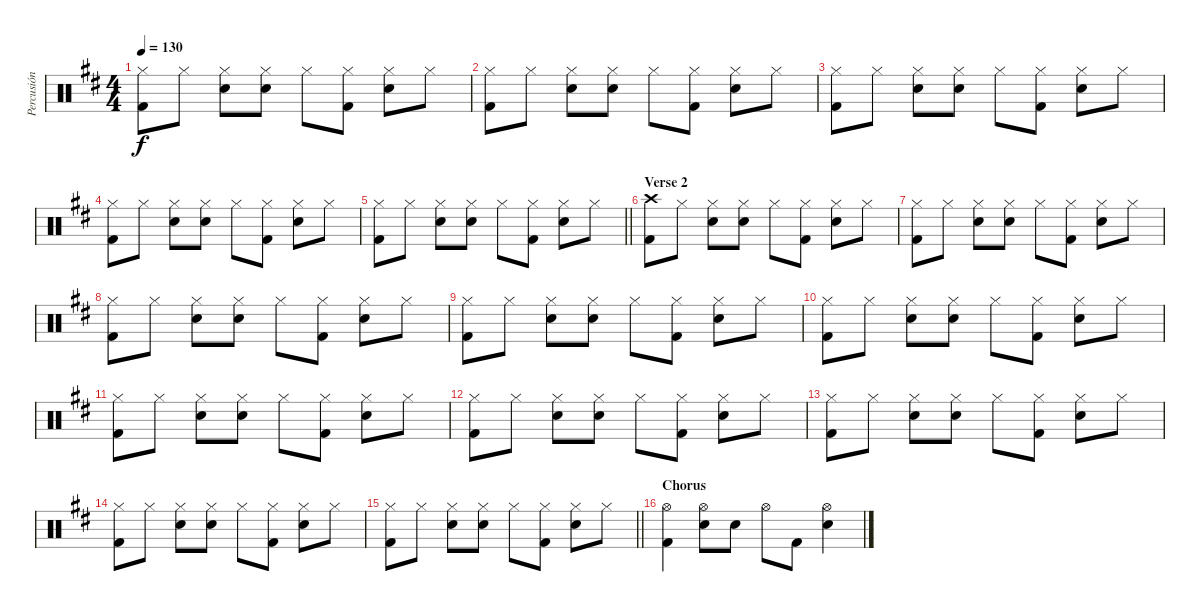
\track ("Percusión" "Percusión") {instrument percussion}
\staff {score}
\articulation defaults
\ts (4 4)
\tempo 130
\clef neutral
\ks d
("Kick (hit) 2" "Hi-Hat (closed)").8{dy f} "Hi-Hat (closed)".8 ("Snare (hit) 2" "Hi-Hat (closed)").8 ("Snare (hit) 2" "Hi-Hat (closed)").8 "Hi-Hat (closed)".8 ("Kick (hit) 2" "Hi-Hat (closed)").8 ("Snare (hit) 2" "Hi-Hat (closed)").8 "Hi-Hat (closed)".8 |
("Kick (hit) 2" "Hi-Hat (closed)").8 "Hi-Hat (closed)".8 ("Snare (hit) 2" "Hi-Hat (closed)").8 ("Snare (hit) 2" "Hi-Hat (closed)").8 "Hi-Hat (closed)".8 ("Kick (hit) 2" "Hi-Hat (closed)").8 ("Snare (hit) 2" "Hi-Hat (closed)").8 "Hi-Hat (closed)".8 |
("Kick (hit) 2" "Hi-Hat (closed)").8 "Hi-Hat (closed)".8 ("Snare (hit) 2" "Hi-Hat (closed)").8 ("Snare (hit) 2" "Hi-Hat (closed)").8 "Hi-Hat (closed)".8 ("Kick (hit) 2" "Hi-Hat (closed)").8 ("Snare (hit) 2" "Hi-Hat (closed)").8 "Hi-Hat (closed)".8 |
("Kick (hit) 2" "Hi-Hat (closed)").8 "Hi-Hat (closed)".8 ("Snare (hit) 2" "Hi-Hat (closed)").8 ("Snare (hit) 2" "Hi-Hat (closed)").8 "Hi-Hat (closed)".8 ("Kick (hit) 2" "Hi-Hat (closed)").8 ("Snare (hit) 2" "Hi-Hat (closed)").8 "Hi-Hat (closed)".8 |
\barLineRight lightlight
("Kick (hit) 2" "Hi-Hat (closed)").8 "Hi-Hat (closed)".8 ("Snare (hit) 2" "Hi-Hat (closed)").8 ("Snare (hit) 2" "Hi-Hat (closed)").8 "Hi-Hat (closed)".8 ("Kick (hit) 2" "Hi-Hat (closed)").8 ("Snare (hit) 2" "Hi-Hat (closed)").8 "Hi-Hat (closed)".8 |
\section ("" "Verse 2")
("Kick (hit) 2" "Crash high (hit)").8 "Hi-Hat (closed)".8 ("Snare (hit) 2" "Hi-Hat (closed)").8 ("Snare (hit) 2" "Hi-Hat (closed)").8 "Hi-Hat (closed)".8 ("Kick (hit) 2" "Hi-Hat (closed)").8 ("Snare (hit) 2" "Hi-Hat (closed)").8 "Hi-Hat (closed)".8 |
("Kick (hit) 2" "Hi-Hat (closed)").8 "Hi-Hat (closed)".8 ("Snare (hit) 2" "Hi-Hat (closed)").8 ("Snare (hit) 2" "Hi-Hat (closed)").8 "Hi-Hat (closed)".8 ("Kick (hit) 2" "Hi-Hat (closed)").8 ("Snare (hit) 2" "Hi-Hat (closed)").8 "Hi-Hat (closed)".8 |
("Kick (hit) 2" "Hi-Hat (closed)").8 "Hi-Hat (closed)".8 ("Snare (hit) 2" "Hi-Hat (closed)").8 ("Snare (hit) 2" "Hi-Hat (closed)").8 "Hi-Hat (closed)".8 ("Kick (hit) 2" "Hi-Hat (closed)").8 ("Snare (hit) 2" "Hi-Hat (closed)").8 "Hi-Hat (closed)".8 |
("Kick (hit) 2" "Hi-Hat (closed)").8 "Hi-Hat (closed)".8 ("Snare (hit) 2" "Hi-Hat (closed)").8 ("Snare (hit) 2" "Hi-Hat (closed)").8 "Hi-Hat (closed)".8 ("Kick (hit) 2" "Hi-Hat (closed)").8 ("Snare (hit) 2" "Hi-Hat (closed)").8 "Hi-Hat (closed)".8 |
("Kick (hit) 2" "Hi-Hat (closed)").8 "Hi-Hat (closed)".8 ("Snare (hit) 2" "Hi-Hat (closed)").8 ("Snare (hit) 2" "Hi-Hat (closed)").8 "Hi-Hat (closed)".8 ("Kick (hit) 2" "Hi-Hat (closed)").8 ("Snare (hit) 2" "Hi-Hat (closed)").8 "Hi-Hat (closed)".8 |
("Kick (hit) 2" "Hi-Hat (closed)").8 "Hi-Hat (closed)".8 ("Snare (hit) 2" "Hi-Hat (closed)").8 ("Snare (hit) 2" "Hi-Hat (closed)").8 "Hi-Hat (closed)".8 ("Kick (hit) 2" "Hi-Hat (closed)").8 ("Snare (hit) 2" "Hi-Hat (closed)").8 "Hi-Hat (closed)".8 |
("Kick (hit) 2" "Hi-Hat (closed)").8 "Hi-Hat (closed)".8 ("Snare (hit) 2" "Hi-Hat (closed)").8 ("Snare (hit) 2" "Hi-Hat (closed)").8 "Hi-Hat (closed)".8 ("Kick (hit) 2" "Hi-Hat (closed)").8 ("Snare (hit) 2" "Hi-Hat (closed)").8 "Hi-Hat (closed)".8 |
("Kick (hit) 2" "Hi-Hat (closed)").8 "Hi-Hat (closed)".8 ("Snare (hit) 2" "Hi-Hat (closed)").8 ("Snare (hit) 2" "Hi-Hat (closed)").8 "Hi-Hat (closed)".8 ("Kick (hit) 2" "Hi-Hat (closed)").8 ("Snare (hit) 2" "Hi-Hat (closed)").8 "Hi-Hat (closed)".8 |
("Kick (hit) 2" "Hi-Hat (closed)").8 "Hi-Hat (closed)".8 ("Snare (hit) 2" "Hi-Hat (closed)").8 ("Snare (hit) 2" "Hi-Hat (closed)").8 "Hi-Hat (closed)".8 ("Kick (hit) 2" "Hi-Hat (closed)").8 ("Snare (hit) 2" "Hi-Hat (closed)").8 "Hi-Hat (closed)".8 |
\barLineRight lightlight
("Kick (hit) 2" "Hi-Hat (closed)").8 "Hi-Hat (closed)".8 ("Snare (hit) 2" "Hi-Hat (closed)").8 ("Snare (hit) 2" "Hi-Hat (closed)").8 "Hi-Hat (closed)".8 ("Kick (hit) 2" "Hi-Hat (closed)").8 ("Snare (hit) 2" "Hi-Hat (closed)").8 "Hi-Hat (closed)".8 |
\section ("" "Chorus")
("Kick (hit) 2" "Hi-Hat (open)").4 ("Snare (hit) 2" "Hi-Hat (open)").8 "Snare (hit) 2".8 "Hi-Hat (open)".8 "Kick (hit) 2".8 ("Snare (hit) 2" "Hi-Hat (open)").4
